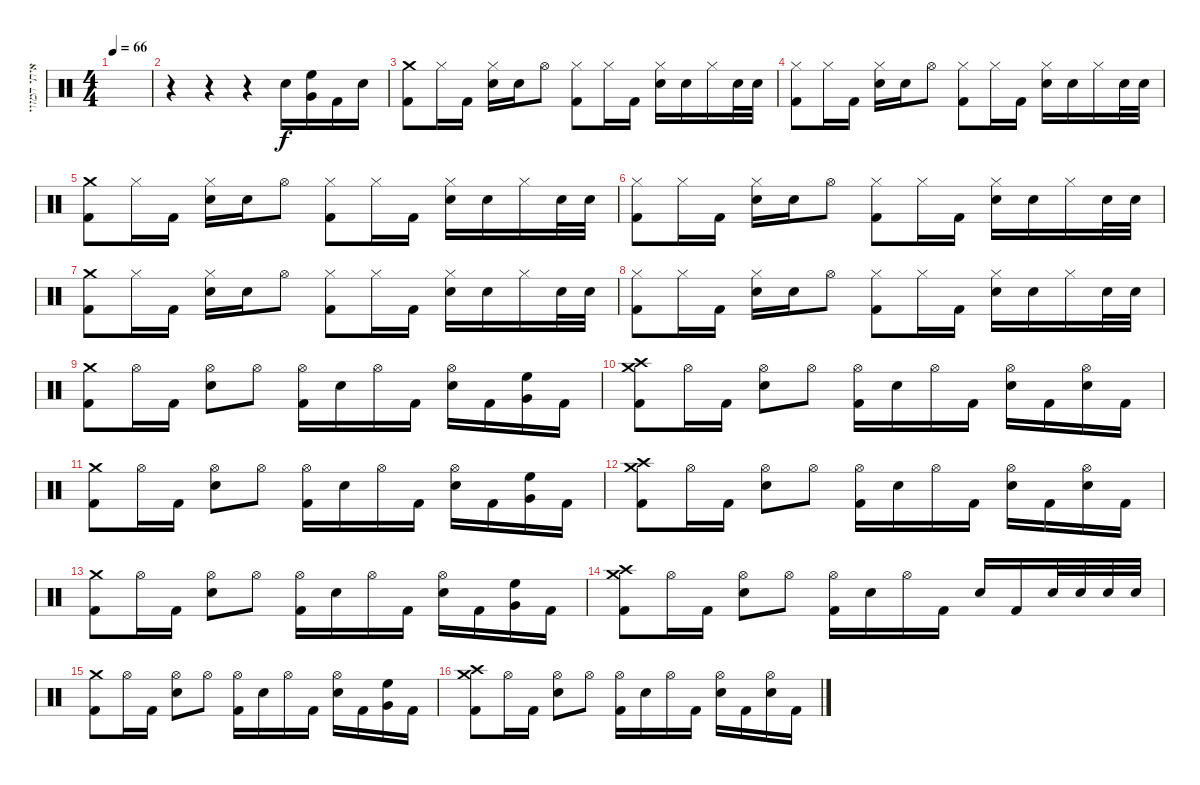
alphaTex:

\track ("איתי המזויין" "איתי המזוי") {instrument percussion}
\staff {score}
\articulation defaults
\ts (4 4)
\tempo 66
\clef neutral
\ks c
|
r.4 r.4 r.4 "Electric Snare (hit)".16 ("High Floor Tom (hit)" "Very Low Tom (hit)").16 "Kick (hit) 2".16 "Electric Snare (hit)".16 |
("Crash medium (hit)" "Kick (hit) 2").8 "Hi-Hat (closed)".16 "Kick (hit) 2".16 ("Hi-Hat (closed)" "Electric Snare (hit)").16 "Electric Snare (hit)".16 "Hi-Hat (open)".8 ("Hi-Hat (closed)" "Kick (hit) 2").8 "Hi-Hat (closed)".16 "Kick (hit) 2".16 ("Hi-Hat (closed)" "Electric Snare (hit)").16 "Electric Snare (hit)".16 "Hi-Hat (closed)".16 "Electric Snare (hit)".32 "Electric Snare (hit)".32 |
("Hi-Hat (closed)" "Kick (hit) 2").8 "Hi-Hat (closed)".16 "Kick (hit) 2".16 ("Hi-Hat (closed)" "Electric Snare (hit)").16 "Electric Snare (hit)".16 "Hi-Hat (open)".8 ("Hi-Hat (closed)" "Kick (hit) 2").8 "Hi-Hat (closed)".16 "Kick (hit) 2".16 ("Hi-Hat (closed)" "Electric Snare (hit)").16 "Electric Snare (hit)".16 "Hi-Hat (closed)".16 "Electric Snare (hit)".32 "Electric Snare (hit)".32 |
("Crash medium (hit)" "Kick (hit) 2").8 "Hi-Hat (closed)".16 "Kick (hit) 2".16 ("Hi-Hat (closed)" "Electric Snare (hit)").16 "Electric Snare (hit)".16 "Hi-Hat (open)".8 ("Hi-Hat (closed)" "Kick (hit) 2").8 "Hi-Hat (closed)".16 "Kick (hit) 2".16 ("Hi-Hat (closed)" "Electric Snare (hit)").16 "Electric Snare (hit)".16 "Hi-Hat (closed)".16 "Electric Snare (hit)".32 "Electric Snare (hit)".32 |
("Hi-Hat (closed)" "Kick (hit) 2").8 "Hi-Hat (closed)".16 "Kick (hit) 2".16 ("Hi-Hat (closed)" "Electric Snare (hit)").16 "Electric Snare (hit)".16 "Hi-Hat (open)".8 ("Hi-Hat (closed)" "Kick (hit) 2").8 "Hi-Hat (closed)".16 "Kick (hit) 2".16 ("Hi-Hat (closed)" "Electric Snare (hit)").16 "Electric Snare (hit)".16 "Hi-Hat (closed)".16 "Electric Snare (hit)".32 "Electric Snare (hit)".32 |
("Crash medium (hit)" "Kick (hit) 2").8 "Hi-Hat (closed)".16 "Kick (hit) 2".16 ("Hi-Hat (closed)" "Electric Snare (hit)").16 "Electric Snare (hit)".16 "Hi-Hat (open)".8 ("Hi-Hat (closed)" "Kick (hit) 2").8 "Hi-Hat (closed)".16 "Kick (hit) 2".16 ("Hi-Hat (closed)" "Electric Snare (hit)").16 "Electric Snare (hit)".16 "Hi-Hat (closed)".16 "Electric Snare (hit)".32 "Electric Snare (hit)".32 |
("Hi-Hat (closed)" "Kick (hit) 2").8 "Hi-Hat (closed)".16 "Kick (hit) 2".16 ("Hi-Hat (closed)" "Electric Snare (hit)").16 "Electric Snare (hit)".16 "Hi-Hat (open)".8 ("Hi-Hat (closed)" "Kick (hit) 2").8 "Hi-Hat (closed)".16 "Kick (hit) 2".16 ("Hi-Hat (closed)" "Electric Snare (hit)").16 "Electric Snare (hit)".16 "Hi-Hat (closed)".16 "Electric Snare (hit)".32 "Electric Snare (hit)".32 |
("Crash medium (hit)" "Kick (hit) 2").8 "Hi-Hat (open)".16 "Kick (hit) 2".16 ("Hi-Hat (open)" "Electric Snare (hit)").8 "Hi-Hat (open)".8 ("Hi-Hat (open)" "Kick (hit) 2").16 "Electric Snare (hit)".16 "Hi-Hat (open)".16 "Kick (hit) 2".16 ("Hi-Hat (open)" "Electric Snare (hit)").16 "Kick (hit) 2".16 ("Very Low Tom (hit)" "High Floor Tom (hit)").16 "Kick (hit) 2".16 |
("Crash medium (hit)" "Crash high (hit)" "Kick (hit) 2").8 "Hi-Hat (open)".16 "Kick (hit) 2".16 ("Hi-Hat (open)" "Electric Snare (hit)").8 "Hi-Hat (open)".8 ("Hi-Hat (open)" "Kick (hit) 2").16 "Electric Snare (hit)".16 "Hi-Hat (open)".16 "Kick (hit) 2".16 ("Hi-Hat (open)" "Electric Snare (hit)").16 "Kick (hit) 2".16 ("Hi-Hat (open)" "Electric Snare (hit)").16 "Kick (hit) 2".16 |
("Crash medium (hit)" "Kick (hit) 2").8 "Hi-Hat (open)".16 "Kick (hit) 2".16 ("Hi-Hat (open)" "Electric Snare (hit)").8 "Hi-Hat (open)".8 ("Hi-Hat (open)" "Kick (hit) 2").16 "Electric Snare (hit)".16 "Hi-Hat (open)".16 "Kick (hit) 2".16 ("Hi-Hat (open)" "Electric Snare (hit)").16 "Kick (hit) 2".16 ("Very Low Tom (hit)" "High Floor Tom (hit)").16 "Kick (hit) 2".16 |
("Crash medium (hit)" "Crash high (hit)" "Kick (hit) 2").8 "Hi-Hat (open)".16 "Kick (hit) 2".16 ("Hi-Hat (open)" "Electric Snare (hit)").8 "Hi-Hat (open)".8 ("Hi-Hat (open)" "Kick (hit) 2").16 "Electric Snare (hit)".16 "Hi-Hat (open)".16 "Kick (hit) 2".16 ("Hi-Hat (open)" "Electric Snare (hit)").16 "Kick (hit) 2".16 ("Hi-Hat (open)" "Electric Snare (hit)").16 "Kick (hit) 2".16 |
("Crash medium (hit)" "Kick (hit) 2").8 "Hi-Hat (open)".16 "Kick (hit) 2".16 ("Hi-Hat (open)" "Electric Snare (hit)").8 "Hi-Hat (open)".8 ("Hi-Hat (open)" "Kick (hit) 2").16 "Electric Snare (hit)".16 "Hi-Hat (open)".16 "Kick (hit) 2".16 ("Hi-Hat (open)" "Electric Snare (hit)").16 "Kick (hit) 2".16 ("Very Low Tom (hit)" "High Floor Tom (hit)").16 "Kick (hit) 2".16 |
("Crash medium (hit)" "Crash high (hit)" "Kick (hit) 2").8 "Hi-Hat (open)".16 "Kick (hit) 2".16 ("Hi-Hat (open)" "Electric Snare (hit)").8 "Hi-Hat (open)".8 ("Hi-Hat (open)" "Kick (hit) 2").16 "Electric Snare (hit)".16 "Hi-Hat (open)".16 "Kick (hit) 2".16 "Electric Snare (hit)".16 "Kick (hit) 2".16 "Electric Snare (hit)".32 "Electric Snare (hit)".32 "Electric Snare (hit)".32 "Electric Snare (hit)".32 |
("Crash medium (hit)" "Kick (hit) 2").8 "Hi-Hat (open)".16 "Kick (hit) 2".16 ("Hi-Hat (open)" "Electric Snare (hit)").8 "Hi-Hat (open)".8 ("Hi-Hat (open)" "Kick (hit) 2").16 "Electric Snare (hit)".16 "Hi-Hat (open)".16 "Kick (hit) 2".16 ("Hi-Hat (open)" "Electric Snare (hit)").16 "Kick (hit) 2".16 ("Very Low Tom (hit)" "High Floor Tom (hit)").16 "Kick (hit) 2".16 |
("Crash medium (hit)" "Crash high (hit)" "Kick (hit) 2").8 "Hi-Hat (open)".16 "Kick (hit) 2".16 ("Hi-Hat (open)" "Electric Snare (hit)").8 "Hi-Hat (open)".8 ("Hi-Hat (open)" "Kick (hit) 2").16 "Electric Snare (hit)".16 "Hi-Hat (open)".16 "Kick (hit) 2".16 ("Hi-Hat (open)" "Electric Snare (hit)").16 "Kick (hit) 2".16 ("Hi-Hat (open)" "Electric Snare (hit)").16 "Kick (hit) 2".16
